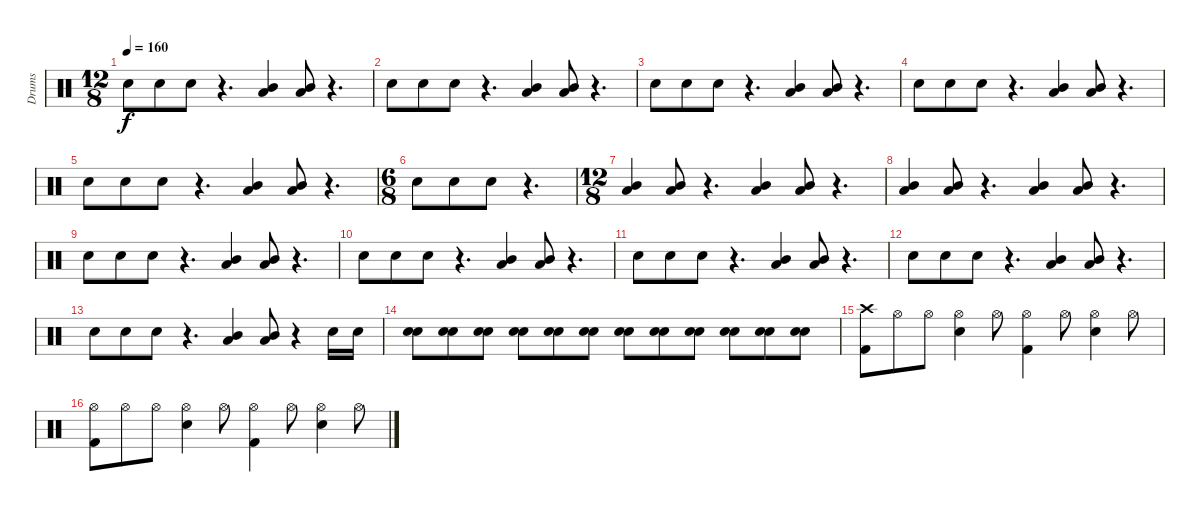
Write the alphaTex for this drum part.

\track ("Drums" "Drums") {instrument percussion}
\staff {score}
\articulation defaults
\ts (12 8)
\tempo 160
\clef neutral
\ks c "Snare (hit) 2".8{dy f} "Snare (hit) 2".8 "Snare (hit) 2".8
r.4{d} ("Low Tom (hit)" "Mid Tom (hit)").4 ("Low Tom (hit)" "Mid Tom (hit)").8 r.4{d} |
"Snare (hit) 2".8 "Snare (hit) 2".8 "Snare (hit) 2".8 r.4{d} ("Low Tom (hit)" "Mid Tom (hit)").4 ("Low Tom (hit)" "Mid Tom (hit)").8 r.4{d} |
"Snare (hit) 2".8 "Snare (hit) 2".8 "Snare (hit) 2".8 r.4{d} ("Low Tom (hit)" "Mid Tom (hit)").4 ("Low Tom (hit)" "Mid Tom (hit)").8 r.4{d} |
"Snare (hit) 2".8 "Snare (hit) 2".8 "Snare (hit) 2".8 r.4{d} ("Low Tom (hit)" "Mid Tom (hit)").4 ("Low Tom (hit)" "Mid Tom (hit)").8 r.4{d} |
"Snare (hit) 2".8 "Snare (hit) 2".8 "Snare (hit) 2".8 r.4{d} ("Low Tom (hit)" "Mid Tom (hit)").4 ("Low Tom (hit)" "Mid Tom (hit)").8 r.4{d} |
\ts (6 8)
"Snare (hit) 2".8 "Snare (hit) 2".8 "Snare (hit) 2".8 r.4{d} |
\ts (12 8)
("Low Tom (hit)" "Mid Tom (hit)").4 ("Low Tom (hit)" "Mid Tom (hit)").8 r.4{d} ("Low Tom (hit)" "Mid Tom (hit)").4 ("Low Tom (hit)" "Mid Tom (hit)").8 r.4{d} |
("Low Tom (hit)" "Mid Tom (hit)").4 ("Low Tom (hit)" "Mid Tom (hit)").8 r.4{d} ("Low Tom (hit)" "Mid Tom (hit)").4 ("Low Tom (hit)" "Mid Tom (hit)").8 r.4{d} |
"Snare (hit) 2".8 "Snare (hit) 2".8 "Snare (hit) 2".8 r.4{d} ("Low Tom (hit)" "Mid Tom (hit)").4 ("Low Tom (hit)" "Mid Tom (hit)").8 r.4{d} |
"Snare (hit) 2".8 "Snare (hit) 2".8 "Snare (hit) 2".8 r.4{d} ("Low Tom (hit)" "Mid Tom (hit)").4 ("Low Tom (hit)" "Mid Tom (hit)").8 r.4{d} |
"Snare (hit) 2".8 "Snare (hit) 2".8 "Snare (hit) 2".8 r.4{d} ("Low Tom (hit)" "Mid Tom (hit)").4 ("Low Tom (hit)" "Mid Tom (hit)").8 r.4{d} |
"Snare (hit) 2".8 "Snare (hit) 2".8 "Snare (hit) 2".8 r.4{d} ("Low Tom (hit)" "Mid Tom (hit)").4 ("Low Tom (hit)" "Mid Tom (hit)").8 r.4{d} |
"Snare (hit) 2".8 "Snare (hit) 2".8 "Snare (hit) 2".8 r.4{d} ("Low Tom (hit)" "Mid Tom (hit)").4 ("Low Tom (hit)" "Mid Tom (hit)").8 r.4 "Snare (hit) 2".16 "Snare (hit) 2".16 |
("Electric Snare (hit)" "Snare (hit) 2").8 ("Electric Snare (hit)" "Snare (hit) 2").8 ("Electric Snare (hit)" "Snare (hit) 2").8 ("Electric Snare (hit)" "Snare (hit) 2").8 ("Electric Snare (hit)" "Snare (hit) 2").8 ("Electric Snare (hit)" "Snare (hit) 2").8 ("Electric Snare (hit)" "Snare (hit) 2").8 ("Electric Snare (hit)" "Snare (hit) 2").8 ("Electric Snare (hit)" "Snare (hit) 2").8 ("Electric Snare (hit)" "Snare (hit) 2").8 ("Electric Snare (hit)" "Snare (hit) 2").8 ("Electric Snare (hit)" "Snare (hit) 2").8 |
("Kick (hit) 2" "Crash high (hit)").8 "Hi-Hat (open)".8 "Hi-Hat (open)".8 ("Snare (hit) 2" "Hi-Hat (open)").4 "Hi-Hat (open)".8 ("Kick (hit) 2" "Hi-Hat (open)").4 "Hi-Hat (open)".8 ("Snare (hit) 2" "Hi-Hat (open)").4 "Hi-Hat (open)".8 |
("Kick (hit) 2" "Hi-Hat (open)").8 "Hi-Hat (open)".8 "Hi-Hat (open)".8 ("Snare (hit) 2" "Hi-Hat (open)").4 "Hi-Hat (open)".8 ("Kick (hit) 2" "Hi-Hat (open)").4 "Hi-Hat (open)".8 ("Snare (hit) 2" "Hi-Hat (open)").4 "Hi-Hat (open)".8
